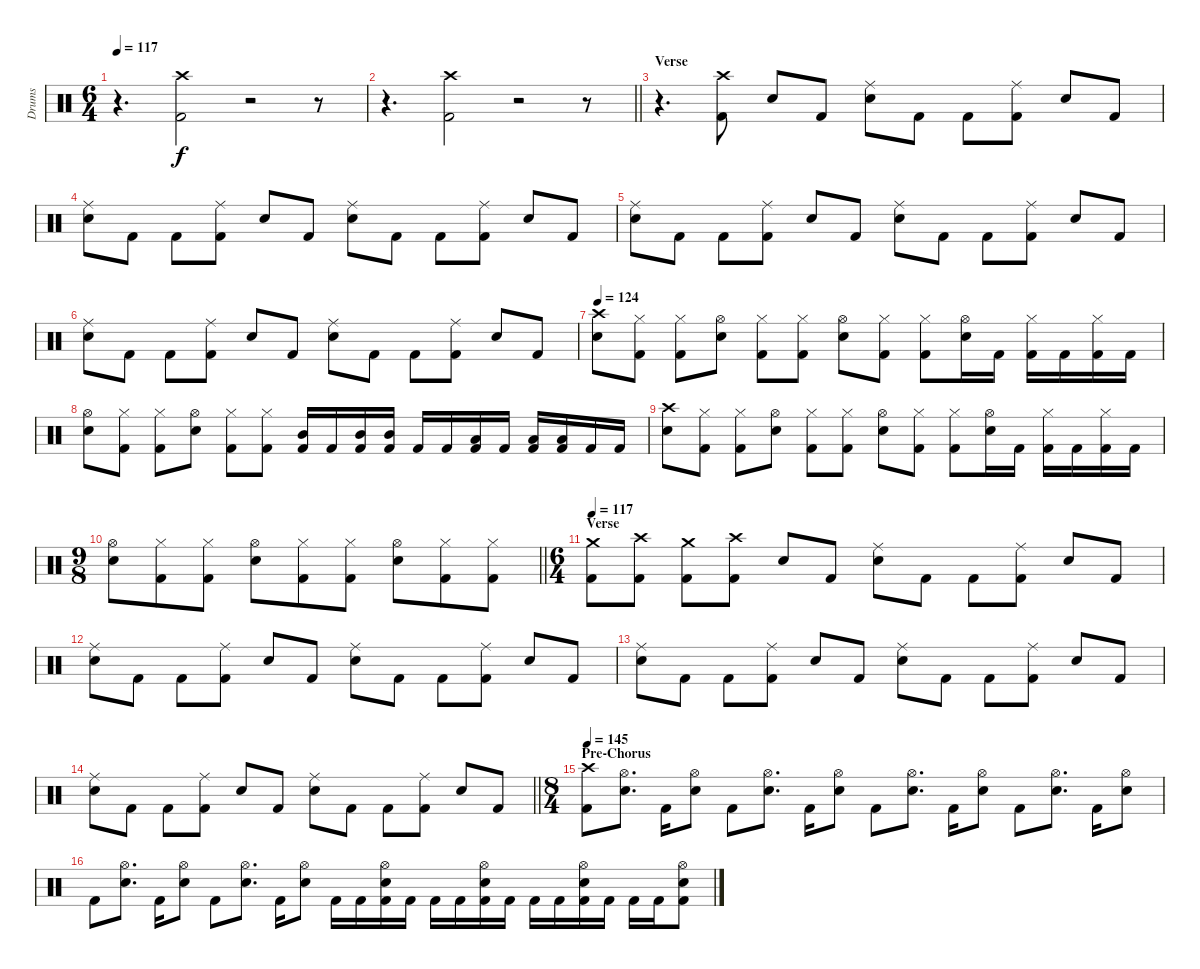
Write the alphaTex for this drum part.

\track ("Drums" "Drums") {instrument percussion}
\staff {score}
\articulation defaults
\ts (6 4)
\tempo 117
\clef neutral
\ks c
r.4{d dy f} ("Crash high (hit)" "Kick (hit) 2").2 r.2 r.8 |
\barLineRight lightlight
r.4{d} ("Crash high (hit)" "Kick (hit) 2").2 r.2 r.8 |
\section ("" "Verse")
r.4{d} ("Crash high (hit)" "Kick (hit) 2").8 "Snare (hit) 2".8 "Kick (hit) 2".8 ("Ride (middle)" "Snare (hit) 2").8 "Kick (hit) 2".8 "Kick (hit) 2".8 ("Ride (middle)" "Kick (hit) 2").8 "Snare (hit) 2".8 "Kick (hit) 2".8 |
("Ride (middle)" "Snare (hit) 2").8 "Kick (hit) 2".8 "Kick (hit) 2".8 ("Ride (middle)" "Kick (hit) 2").8 "Snare (hit) 2".8 "Kick (hit) 2".8 ("Ride (middle)" "Snare (hit) 2").8 "Kick (hit) 2".8 "Kick (hit) 2".8 ("Ride (middle)" "Kick (hit) 2").8 "Snare (hit) 2".8 "Kick (hit) 2".8 |
("Ride (middle)" "Snare (hit) 2").8 "Kick (hit) 2".8 "Kick (hit) 2".8 ("Ride (middle)" "Kick (hit) 2").8 "Snare (hit) 2".8 "Kick (hit) 2".8 ("Ride (middle)" "Snare (hit) 2").8 "Kick (hit) 2".8 "Kick (hit) 2".8 ("Ride (middle)" "Kick (hit) 2").8 "Snare (hit) 2".8 "Kick (hit) 2".8 |
("Ride (middle)" "Snare (hit) 2").8 "Kick (hit) 2".8 "Kick (hit) 2".8 ("Ride (middle)" "Kick (hit) 2").8 "Snare (hit) 2".8 "Kick (hit) 2".8 ("Ride (middle)" "Snare (hit) 2").8 "Kick (hit) 2".8 "Kick (hit) 2".8 ("Ride (middle)" "Kick (hit) 2").8 "Snare (hit) 2".8 "Kick (hit) 2".8 |
\tempo 124
("Crash high (hit)" "Snare (hit) 2").8 ("Hi-Hat (closed)" "Kick (hit) 2").8 ("Hi-Hat (closed)" "Kick (hit) 2").8 ("Hi-Hat (open)" "Snare (hit) 2").8 ("Hi-Hat (closed)" "Kick (hit) 2").8 ("Hi-Hat (closed)" "Kick (hit) 2").8 ("Hi-Hat (open)" "Snare (hit) 2").8 ("Hi-Hat (closed)" "Kick (hit) 2").8 ("Hi-Hat (closed)" "Kick (hit) 2").8 ("Hi-Hat (open)" "Snare (hit) 2").16 "Kick (hit) 2".16 ("Hi-Hat (closed)" "Kick (hit) 2").16 "Kick (hit) 2".16 ("Hi-Hat (closed)" "Kick (hit) 2").16 "Kick (hit) 2".16 |
("Hi-Hat (open)" "Snare (hit) 2").8 ("Hi-Hat (closed)" "Kick (hit) 2").8 ("Hi-Hat (closed)" "Kick (hit) 2").8 ("Hi-Hat (open)" "Snare (hit) 2").8 ("Hi-Hat (closed)" "Kick (hit) 2").8 ("Hi-Hat (closed)" "Kick (hit) 2").8 ("Mid Tom (hit)" "Kick (hit) 2").16 "Kick (hit) 2".16 ("Mid Tom (hit)" "Kick (hit) 2").16 ("Mid Tom (hit)" "Kick (hit) 2").16 "Kick (hit) 2".16 "Kick (hit) 2".16 ("Low Tom (hit)" "Kick (hit) 2").16 "Kick (hit) 2".16 ("Low Tom (hit)" "Kick (hit) 2").16 ("Low Tom (hit)" "Kick (hit) 2").16 "Kick (hit) 2".16 "Kick (hit) 2".16 |
("Crash high (hit)" "Snare (hit) 2").8 ("Hi-Hat (closed)" "Kick (hit) 2").8 ("Hi-Hat (closed)" "Kick (hit) 2").8 ("Hi-Hat (open)" "Snare (hit) 2").8 ("Hi-Hat (closed)" "Kick (hit) 2").8 ("Hi-Hat (closed)" "Kick (hit) 2").8 ("Hi-Hat (open)" "Snare (hit) 2").8 ("Hi-Hat (closed)" "Kick (hit) 2").8 ("Hi-Hat (closed)" "Kick (hit) 2").8 ("Hi-Hat (open)" "Snare (hit) 2").16 "Kick (hit) 2".16 ("Hi-Hat (closed)" "Kick (hit) 2").16 "Kick (hit) 2".16 ("Hi-Hat (closed)" "Kick (hit) 2").16 "Kick (hit) 2".16 |
\ts (9 8)
\barLineRight lightlight
("Hi-Hat (open)" "Snare (hit) 2").8 ("Hi-Hat (closed)" "Kick (hit) 2").8 ("Hi-Hat (closed)" "Kick (hit) 2").8 ("Hi-Hat (open)" "Snare (hit) 2").8 ("Hi-Hat (closed)" "Kick (hit) 2").8 ("Hi-Hat (closed)" "Kick (hit) 2").8 ("Hi-Hat (open)" "Snare (hit) 2").8 ("Hi-Hat (closed)" "Kick (hit) 2").8 ("Hi-Hat (closed)" "Kick (hit) 2").8 |
\ts (6 4)
\section ("" "Verse")
\tempo 117
("Crash medium (hit)" "Kick (hit) 2").8 ("Crash high (hit)" "Kick (hit) 2").8 ("Crash medium (hit)" "Kick (hit) 2").8 ("Crash high (hit)" "Kick (hit) 2").8 "Snare (hit) 2".8 "Kick (hit) 2".8 ("Ride (middle)" "Snare (hit) 2").8 "Kick (hit) 2".8 "Kick (hit) 2".8 ("Ride (middle)" "Kick (hit) 2").8 "Snare (hit) 2".8 "Kick (hit) 2".8 |
("Ride (middle)" "Snare (hit) 2").8 "Kick (hit) 2".8 "Kick (hit) 2".8 ("Ride (middle)" "Kick (hit) 2").8 "Snare (hit) 2".8 "Kick (hit) 2".8 ("Ride (middle)" "Snare (hit) 2").8 "Kick (hit) 2".8 "Kick (hit) 2".8 ("Ride (middle)" "Kick (hit) 2").8 "Snare (hit) 2".8 "Kick (hit) 2".8 |
("Ride (middle)" "Snare (hit) 2").8 "Kick (hit) 2".8 "Kick (hit) 2".8 ("Ride (middle)" "Kick (hit) 2").8 "Snare (hit) 2".8 "Kick (hit) 2".8 ("Ride (middle)" "Snare (hit) 2").8 "Kick (hit) 2".8 "Kick (hit) 2".8 ("Ride (middle)" "Kick (hit) 2").8 "Snare (hit) 2".8 "Kick (hit) 2".8 |
\barLineRight lightlight
("Ride (middle)" "Snare (hit) 2").8 "Kick (hit) 2".8 "Kick (hit) 2".8 ("Ride (middle)" "Kick (hit) 2").8 "Snare (hit) 2".8 "Kick (hit) 2".8 ("Ride (middle)" "Snare (hit) 2").8 "Kick (hit) 2".8 "Kick (hit) 2".8 ("Ride (middle)" "Kick (hit) 2").8 "Snare (hit) 2".8 "Kick (hit) 2".8 |
\ts (8 4)
\section ("" "Pre-Chorus")
\tempo 145
("Crash high (hit)" "Kick (hit) 2").8 ("Hi-Hat (open)" "Snare (hit) 2").8{d} "Kick (hit) 2".16 ("Hi-Hat (open)" "Snare (hit) 2").8 "Kick (hit) 2".8 ("Hi-Hat (open)" "Snare (hit) 2").8{d} "Kick (hit) 2".16 ("Hi-Hat (open)" "Snare (hit) 2").8 "Kick (hit) 2".8 ("Hi-Hat (open)" "Snare (hit) 2").8{d} "Kick (hit) 2".16 ("Hi-Hat (open)" "Snare (hit) 2").8 "Kick (hit) 2".8 ("Hi-Hat (open)" "Snare (hit) 2").8{d} "Kick (hit) 2".16 ("Hi-Hat (open)" "Snare (hit) 2").8 |
"Kick (hit) 2".8 ("Hi-Hat (open)" "Snare (hit) 2").8{d} "Kick (hit) 2".16 ("Hi-Hat (open)" "Snare (hit) 2").8 "Kick (hit) 2".8 ("Hi-Hat (open)" "Snare (hit) 2").8{d} "Kick (hit) 2".16 ("Hi-Hat (open)" "Snare (hit) 2").8 "Kick (hit) 2".16 "Kick (hit) 2".16 ("Hi-Hat (open)" "Snare (hit) 2" "Kick (hit) 2").16 "Kick (hit) 2".16 "Kick (hit) 2".16 "Kick (hit) 2".16 ("Hi-Hat (open)" "Snare (hit) 2" "Kick (hit) 2").16 "Kick (hit) 2".16 "Kick (hit) 2".16 "Kick (hit) 2".16 ("Hi-Hat (open)" "Snare (hit) 2" "Kick (hit) 2").16 "Kick (hit) 2".16 "Kick (hit) 2".16 "Kick (hit) 2".16 ("Hi-Hat (open)" "Snare (hit) 2" "Kick (hit) 2").8
